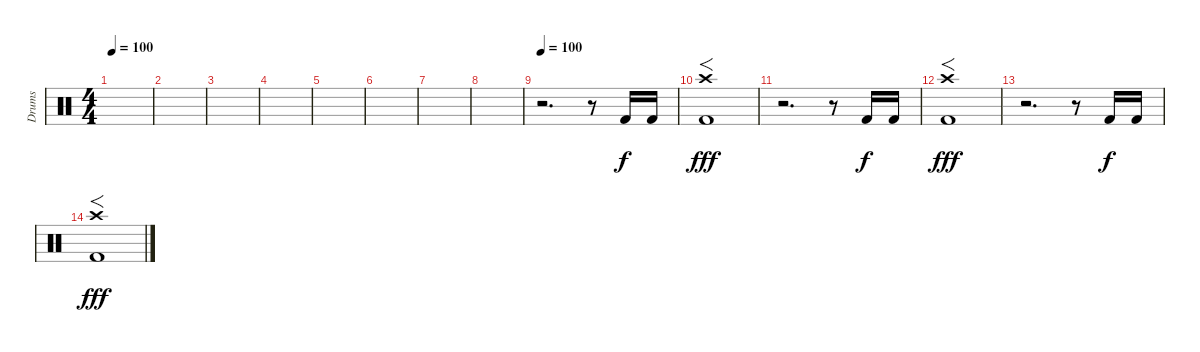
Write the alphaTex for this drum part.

\track ("Drums" "Drums") {instrument percussion}
\staff {score}
\articulation defaults
\ts (4 4)
\tempo 100
\clef neutral
\ks c
|
|
|
|
|
|
|
|
\tempo 100
r.2{d} r.8 "Kick (hit) 2".16{dy f} "Kick (hit) 2".16 |
("Crash high (hit)" "Kick (hit) 2").1{f dy fff} |
r.2{d} r.8 "Kick (hit) 2".16{dy f} "Kick (hit) 2".16 |
("Crash high (hit)" "Kick (hit) 2").1{f dy fff} |
r.2{d} r.8 "Kick (hit) 2".16{dy f} "Kick (hit) 2".16 |
("Crash high (hit)" "Kick (hit) 2").1{f dy fff}
